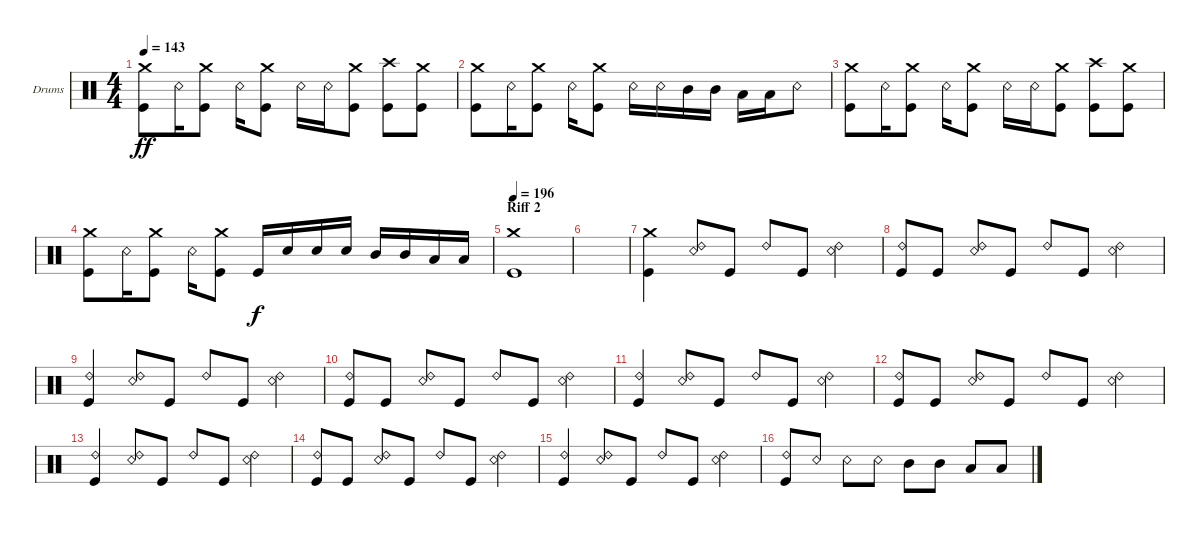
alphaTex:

\defaultSystemsLayout 4
\bracketExtendMode groupsimilarinstruments
\firstSystemTrackNameOrientation horizontal
\otherSystemsTrackNameOrientation horizontal
\track ("Nao - Drums" "Drums") {instrument percussion}
\staff {score}
\articulation defaults
\ts (4 4)
\tempo 143
\clef neutral
\ks c
("Crash medium (hit)" "Kick (hit)").8{dy ff} "Snare (rim shot)".16 ("Crash medium (hit)" "Kick (hit)").8 "Snare (rim shot)".16 ("Crash medium (hit)" "Kick (hit)").8 "Snare (rim shot)".16 "Snare (rim shot)".16 ("Kick (hit)" "Crash medium (hit)").8 ("Crash high (hit)" "Kick (hit)").8 ("Crash medium (hit)" "Kick (hit)").8 |
("Crash medium (hit)" "Kick (hit)").8 "Snare (rim shot)".16 ("Crash medium (hit)" "Kick (hit)").8 "Snare (rim shot)".16 ("Crash medium (hit)" "Kick (hit)").8 "Snare (rim shot)".16 "Snare (rim shot)".16 "Mid Tom (hit)".16 "Mid Tom (hit)".16 "Low Tom (hit)".16 "Low Tom (hit)".16 "Snare (rim shot)".8 |
("Crash medium (hit)" "Kick (hit)").8 "Snare (rim shot)".16 ("Crash medium (hit)" "Kick (hit)").8 "Snare (rim shot)".16 ("Crash medium (hit)" "Kick (hit)").8 "Snare (rim shot)".16 "Snare (rim shot)".16 ("Kick (hit)" "Crash medium (hit)").8 ("Crash high (hit)" "Kick (hit)").8 ("Crash medium (hit)" "Kick (hit)").8 |
("Crash medium (hit)" "Kick (hit)").8 "Snare (rim shot)".16 ("Crash medium (hit)" "Kick (hit)").8 "Snare (rim shot)".16 ("Crash medium (hit)" "Kick (hit)").8 "Kick (hit)".16{dy f} "Snare (hit) 2".16 "Snare (hit) 2".16 "Snare (hit) 2".16 "Mid Tom (hit)".16 "Mid Tom (hit)".16 "Low Tom (hit)".16 "Low Tom (hit)".16 |
\section ("" "Riff 2")
\tempo 196
("Crash medium (hit)" "Kick (hit)").1 |
|
("Crash medium (hit)" "Kick (hit)").4 ("Snare (rim shot)" "Ride (bell) 2").8 "Kick (hit)".8 "Ride (bell) 2".8 "Kick (hit)".8 ("Snare (rim shot)" "Ride (bell) 2").4 |
("Kick (hit)" "Ride (bell) 2").8 "Kick (hit)".8 ("Snare (rim shot)" "Ride (bell) 2").8 "Kick (hit)".8 "Ride (bell) 2".8 "Kick (hit)".8 ("Snare (rim shot)" "Ride (bell) 2").4 |
("Kick (hit)" "Ride (bell) 2").4 ("Snare (rim shot)" "Ride (bell) 2").8 "Kick (hit)".8 "Ride (bell) 2".8 "Kick (hit)".8 ("Snare (rim shot)" "Ride (bell) 2").4 |
("Kick (hit)" "Ride (bell) 2").8 "Kick (hit)".8 ("Snare (rim shot)" "Ride (bell) 2").8 "Kick (hit)".8 "Ride (bell) 2".8 "Kick (hit)".8 ("Snare (rim shot)" "Ride (bell) 2").4 |
("Kick (hit)" "Ride (bell) 2").4 ("Snare (rim shot)" "Ride (bell) 2").8 "Kick (hit)".8 "Ride (bell) 2".8 "Kick (hit)".8 ("Snare (rim shot)" "Ride (bell) 2").4 |
("Kick (hit)" "Ride (bell) 2").8 "Kick (hit)".8 ("Snare (rim shot)" "Ride (bell) 2").8 "Kick (hit)".8 "Ride (bell) 2".8 "Kick (hit)".8 ("Snare (rim shot)" "Ride (bell) 2").4 |
("Kick (hit)" "Ride (bell) 2").4 ("Snare (rim shot)" "Ride (bell) 2").8 "Kick (hit)".8 "Ride (bell) 2".8 "Kick (hit)".8 ("Snare (rim shot)" "Ride (bell) 2").4 |
("Kick (hit)" "Ride (bell) 2").8 "Kick (hit)".8 ("Snare (rim shot)" "Ride (bell) 2").8 "Kick (hit)".8 "Ride (bell) 2".8 "Kick (hit)".8 ("Snare (rim shot)" "Ride (bell) 2").4 |
("Kick (hit)" "Ride (bell) 2").4 ("Snare (rim shot)" "Ride (bell) 2").8 "Kick (hit)".8 "Ride (bell) 2".8 "Kick (hit)".8 ("Snare (rim shot)" "Ride (bell) 2").4 |
("Kick (hit)" "Ride (bell) 2").8 "Snare (rim shot)".8 "Snare (rim shot)".8 "Snare (rim shot)".8 "Mid Tom (hit)".8 "Mid Tom (hit)".8 "Low Tom (hit)".8 "Low Tom (hit)".8
